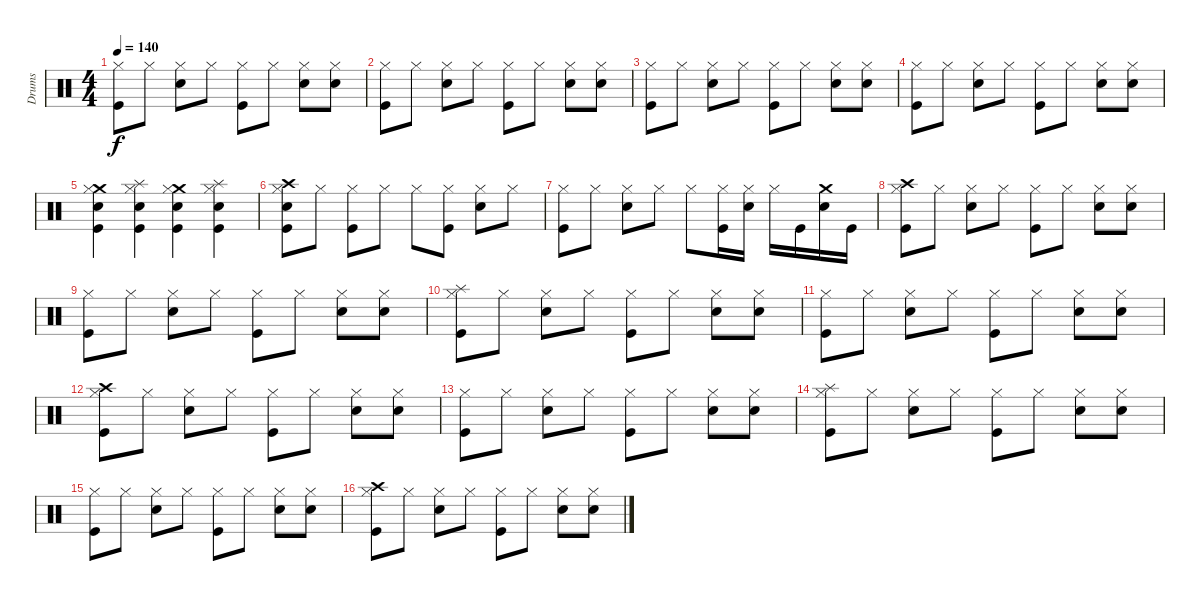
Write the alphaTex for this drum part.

\track ("Drums" "Drums") {instrument percussion}
\staff {score}
\articulation defaults
\ts (4 4)
\tempo 140
\clef neutral
\ks c
("Hi-Hat (closed)" "Kick (hit)").8{dy f} "Hi-Hat (closed)".8 ("Hi-Hat (closed)" "Electric Snare (hit)").8 "Hi-Hat (closed)".8 ("Hi-Hat (closed)" "Kick (hit)").8 "Hi-Hat (closed)".8 ("Hi-Hat (closed)" "Electric Snare (hit)").8 ("Hi-Hat (closed)" "Electric Snare (hit)").8 |
("Hi-Hat (closed)" "Kick (hit)").8 "Hi-Hat (closed)".8 ("Hi-Hat (closed)" "Electric Snare (hit)").8 "Hi-Hat (closed)".8 ("Hi-Hat (closed)" "Kick (hit)").8 "Hi-Hat (closed)".8 ("Hi-Hat (closed)" "Electric Snare (hit)").8 ("Hi-Hat (closed)" "Electric Snare (hit)").8 |
("Hi-Hat (closed)" "Kick (hit)").8 "Hi-Hat (closed)".8 ("Hi-Hat (closed)" "Electric Snare (hit)").8 "Hi-Hat (closed)".8 ("Hi-Hat (closed)" "Kick (hit)").8 "Hi-Hat (closed)".8 ("Hi-Hat (closed)" "Electric Snare (hit)").8 ("Hi-Hat (closed)" "Electric Snare (hit)").8 |
("Hi-Hat (closed)" "Kick (hit)").8 "Hi-Hat (closed)".8 ("Hi-Hat (closed)" "Electric Snare (hit)").8 "Hi-Hat (closed)".8 ("Hi-Hat (closed)" "Kick (hit)").8 "Hi-Hat (closed)".8 ("Hi-Hat (closed)" "Electric Snare (hit)").8 ("Hi-Hat (closed)" "Electric Snare (hit)").8 |
("Crash medium (hit)" "Electric Snare (hit)" "Hi-Hat (closed)" "Kick (hit)").4 ("Splash (hit)" "Electric Snare (hit)" "Hi-Hat (closed)" "Kick (hit)").4 ("Crash medium (hit)" "Electric Snare (hit)" "Hi-Hat (closed)" "Kick (hit)").4 ("Splash (hit)" "Electric Snare (hit)" "Hi-Hat (closed)" "Kick (hit)").4 |
("Crash high (hit)" "Kick (hit)" "Hi-Hat (closed)" "Electric Snare (hit)").8 "Hi-Hat (closed)".8 ("Hi-Hat (closed)" "Kick (hit)").8 "Hi-Hat (closed)".8 "Hi-Hat (closed)".8 ("Hi-Hat (closed)" "Kick (hit)").8 ("Hi-Hat (closed)" "Electric Snare (hit)").8 "Hi-Hat (closed)".8 |
("Hi-Hat (closed)" "Kick (hit)").8 "Hi-Hat (closed)".8 ("Hi-Hat (closed)" "Electric Snare (hit)").8 "Hi-Hat (closed)".8 "Hi-Hat (closed)".8 ("Hi-Hat (closed)" "Kick (hit)").16 ("Hi-Hat (closed)" "Electric Snare (hit)").16 "Hi-Hat (closed)".16 "Kick (hit)".16 ("Crash medium (hit)" "Electric Snare (hit)").16 "Kick (hit)".16 |
("Crash high (hit)" "Hi-Hat (closed)" "Kick (hit)").8 "Hi-Hat (closed)".8 ("Hi-Hat (closed)" "Electric Snare (hit)").8 "Hi-Hat (closed)".8 ("Hi-Hat (closed)" "Kick (hit)").8 "Hi-Hat (closed)".8 ("Hi-Hat (closed)" "Electric Snare (hit)").8 ("Hi-Hat (closed)" "Electric Snare (hit)").8 |
("Hi-Hat (closed)" "Kick (hit)").8 "Hi-Hat (closed)".8 ("Hi-Hat (closed)" "Electric Snare (hit)").8 "Hi-Hat (closed)".8 ("Hi-Hat (closed)" "Kick (hit)").8 "Hi-Hat (closed)".8 ("Hi-Hat (closed)" "Electric Snare (hit)").8 ("Hi-Hat (closed)" "Electric Snare (hit)").8 |
("Splash (hit)" "Hi-Hat (closed)" "Kick (hit)").8 "Hi-Hat (closed)".8 ("Hi-Hat (closed)" "Electric Snare (hit)").8 "Hi-Hat (closed)".8 ("Hi-Hat (closed)" "Kick (hit)").8 "Hi-Hat (closed)".8 ("Hi-Hat (closed)" "Electric Snare (hit)").8 ("Hi-Hat (closed)" "Electric Snare (hit)").8 |
("Hi-Hat (closed)" "Kick (hit)").8 "Hi-Hat (closed)".8 ("Hi-Hat (closed)" "Electric Snare (hit)").8 "Hi-Hat (closed)".8 ("Hi-Hat (closed)" "Kick (hit)").8 "Hi-Hat (closed)".8 ("Hi-Hat (closed)" "Electric Snare (hit)").8 ("Hi-Hat (closed)" "Electric Snare (hit)").8 |
("Crash high (hit)" "Hi-Hat (closed)" "Kick (hit)").8 "Hi-Hat (closed)".8 ("Hi-Hat (closed)" "Electric Snare (hit)").8 "Hi-Hat (closed)".8 ("Hi-Hat (closed)" "Kick (hit)").8 "Hi-Hat (closed)".8 ("Hi-Hat (closed)" "Electric Snare (hit)").8 ("Hi-Hat (closed)" "Electric Snare (hit)").8 |
("Hi-Hat (closed)" "Kick (hit)").8 "Hi-Hat (closed)".8 ("Hi-Hat (closed)" "Electric Snare (hit)").8 "Hi-Hat (closed)".8 ("Hi-Hat (closed)" "Kick (hit)").8 "Hi-Hat (closed)".8 ("Hi-Hat (closed)" "Electric Snare (hit)").8 ("Hi-Hat (closed)" "Electric Snare (hit)").8 |
("Splash (hit)" "Hi-Hat (closed)" "Kick (hit)").8 "Hi-Hat (closed)".8 ("Hi-Hat (closed)" "Electric Snare (hit)").8 "Hi-Hat (closed)".8 ("Hi-Hat (closed)" "Kick (hit)").8 "Hi-Hat (closed)".8 ("Hi-Hat (closed)" "Electric Snare (hit)").8 ("Hi-Hat (closed)" "Electric Snare (hit)").8 |
("Hi-Hat (closed)" "Kick (hit)").8 "Hi-Hat (closed)".8 ("Hi-Hat (closed)" "Electric Snare (hit)").8 "Hi-Hat (closed)".8 ("Hi-Hat (closed)" "Kick (hit)").8 "Hi-Hat (closed)".8 ("Hi-Hat (closed)" "Electric Snare (hit)").8 ("Hi-Hat (closed)" "Electric Snare (hit)").8 |
("Crash high (hit)" "Hi-Hat (closed)" "Kick (hit)").8 "Hi-Hat (closed)".8 ("Hi-Hat (closed)" "Electric Snare (hit)").8 "Hi-Hat (closed)".8 ("Hi-Hat (closed)" "Kick (hit)").8 "Hi-Hat (closed)".8 ("Hi-Hat (closed)" "Electric Snare (hit)").8 ("Hi-Hat (closed)" "Electric Snare (hit)").8
